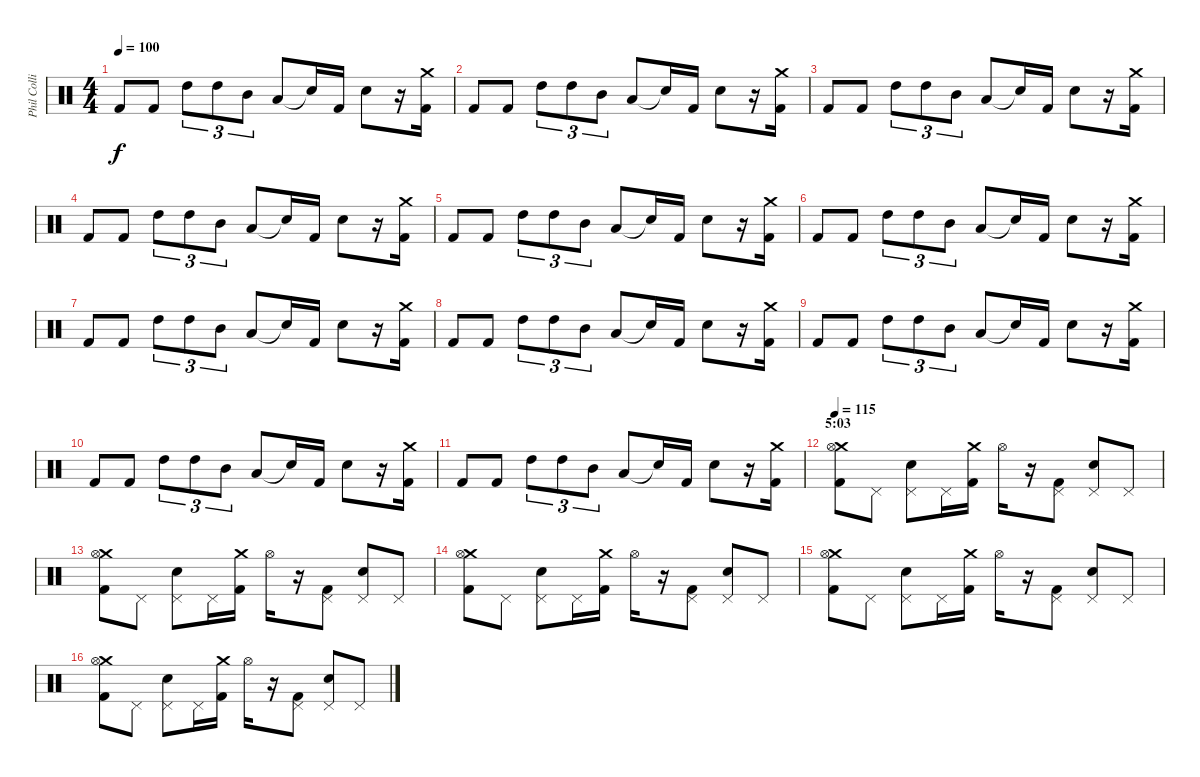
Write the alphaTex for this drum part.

\track ("Phil Collins (drums)" "Phil Colli") {instrument percussion}
\staff {score}
\articulation defaults
\ts (4 4)
\tempo 100
\clef neutral
\ks c "Kick (hit) 2".8{dy f} "Kick (hit) 2".8 "High Tom (hit)".8{tu (3 2)} "High Tom (hit)".8{tu (3 2)} "Mid Tom (hit)".8{tu (3 2)} "Low Tom (hit)".8 "Snare (hit)"{t}.16 "Kick (hit) 2".16 "Electric Snare (hit)".8
r.16 ("Crash medium (hit)" "Kick (hit) 2").16 |
"Kick (hit) 2".8 "Kick (hit) 2".8 "High Tom (hit)".8{tu (3 2)} "High Tom (hit)".8{tu (3 2)} "Mid Tom (hit)".8{tu (3 2)} "Low Tom (hit)".8 "Snare (hit)"{t}.16 "Kick (hit) 2".16 "Electric Snare (hit)".8 r.16 ("Crash medium (hit)" "Kick (hit) 2").16 |
"Kick (hit) 2".8 "Kick (hit) 2".8 "High Tom (hit)".8{tu (3 2)} "High Tom (hit)".8{tu (3 2)} "Mid Tom (hit)".8{tu (3 2)} "Low Tom (hit)".8 "Snare (hit)"{t}.16 "Kick (hit) 2".16 "Electric Snare (hit)".8 r.16 ("Crash medium (hit)" "Kick (hit) 2").16 |
"Kick (hit) 2".8 "Kick (hit) 2".8 "High Tom (hit)".8{tu (3 2)} "High Tom (hit)".8{tu (3 2)} "Mid Tom (hit)".8{tu (3 2)} "Low Tom (hit)".8 "Snare (hit)"{t}.16 "Kick (hit) 2".16 "Electric Snare (hit)".8 r.16 ("Crash medium (hit)" "Kick (hit) 2").16 |
"Kick (hit) 2".8 "Kick (hit) 2".8 "High Tom (hit)".8{tu (3 2)} "High Tom (hit)".8{tu (3 2)} "Mid Tom (hit)".8{tu (3 2)} "Low Tom (hit)".8 "Snare (hit)"{t}.16 "Kick (hit) 2".16 "Electric Snare (hit)".8 r.16 ("Crash medium (hit)" "Kick (hit) 2").16 |
"Kick (hit) 2".8 "Kick (hit) 2".8 "High Tom (hit)".8{tu (3 2)} "High Tom (hit)".8{tu (3 2)} "Mid Tom (hit)".8{tu (3 2)} "Low Tom (hit)".8 "Snare (hit)"{t}.16 "Kick (hit) 2".16 "Electric Snare (hit)".8 r.16 ("Crash medium (hit)" "Kick (hit) 2").16 |
"Kick (hit) 2".8 "Kick (hit) 2".8 "High Tom (hit)".8{tu (3 2)} "High Tom (hit)".8{tu (3 2)} "Mid Tom (hit)".8{tu (3 2)} "Low Tom (hit)".8 "Snare (hit)"{t}.16 "Kick (hit) 2".16 "Electric Snare (hit)".8 r.16 ("Crash medium (hit)" "Kick (hit) 2").16 |
"Kick (hit) 2".8 "Kick (hit) 2".8 "High Tom (hit)".8{tu (3 2)} "High Tom (hit)".8{tu (3 2)} "Mid Tom (hit)".8{tu (3 2)} "Low Tom (hit)".8 "Snare (hit)"{t}.16 "Kick (hit) 2".16 "Electric Snare (hit)".8 r.16 ("Crash medium (hit)" "Kick (hit) 2").16 |
"Kick (hit) 2".8 "Kick (hit) 2".8 "High Tom (hit)".8{tu (3 2)} "High Tom (hit)".8{tu (3 2)} "Mid Tom (hit)".8{tu (3 2)} "Low Tom (hit)".8 "Snare (hit)"{t}.16 "Kick (hit) 2".16 "Electric Snare (hit)".8 r.16 ("Crash medium (hit)" "Kick (hit) 2").16 |
"Kick (hit) 2".8 "Kick (hit) 2".8 "High Tom (hit)".8{tu (3 2)} "High Tom (hit)".8{tu (3 2)} "Mid Tom (hit)".8{tu (3 2)} "Low Tom (hit)".8 "Snare (hit)"{t}.16 "Kick (hit) 2".16 "Electric Snare (hit)".8 r.16 ("Crash medium (hit)" "Kick (hit) 2").16 |
"Kick (hit) 2".8 "Kick (hit) 2".8 "High Tom (hit)".8{tu (3 2)} "High Tom (hit)".8{tu (3 2)} "Mid Tom (hit)".8{tu (3 2)} "Low Tom (hit)".8 "Snare (hit)"{t}.16 "Kick (hit) 2".16 "Electric Snare (hit)".8 r.16 ("Crash medium (hit)" "Kick (hit) 2").16 |
\section ("" "5:03")
\tempo 115
("Crash medium (hit)" "Hi-Hat (open)" "Kick (hit) 2").8 "Pedal Hi-Hat (hit)".8 ("Pedal Hi-Hat (hit)" "Electric Snare (hit)").8 "Pedal Hi-Hat (hit)".16 ("Crash medium (hit)" "Kick (hit) 2").16 "Hi-Hat (open)".16 r.16 ("Pedal Hi-Hat (hit)" "Kick (hit) 2").8 ("Pedal Hi-Hat (hit)" "Electric Snare (hit)").8 "Pedal Hi-Hat (hit)".8 |
("Crash medium (hit)" "Hi-Hat (open)" "Kick (hit) 2").8 "Pedal Hi-Hat (hit)".8 ("Pedal Hi-Hat (hit)" "Electric Snare (hit)").8 "Pedal Hi-Hat (hit)".16 ("Crash medium (hit)" "Kick (hit) 2").16 "Hi-Hat (open)".16 r.16 ("Pedal Hi-Hat (hit)" "Kick (hit) 2").8 ("Pedal Hi-Hat (hit)" "Electric Snare (hit)").8 "Pedal Hi-Hat (hit)".8 |
("Crash medium (hit)" "Hi-Hat (open)" "Kick (hit) 2").8 "Pedal Hi-Hat (hit)".8 ("Pedal Hi-Hat (hit)" "Electric Snare (hit)").8 "Pedal Hi-Hat (hit)".16 ("Crash medium (hit)" "Kick (hit) 2").16 "Hi-Hat (open)".16 r.16 ("Pedal Hi-Hat (hit)" "Kick (hit) 2").8 ("Pedal Hi-Hat (hit)" "Electric Snare (hit)").8 "Pedal Hi-Hat (hit)".8 |
("Crash medium (hit)" "Hi-Hat (open)" "Kick (hit) 2").8 "Pedal Hi-Hat (hit)".8 ("Pedal Hi-Hat (hit)" "Electric Snare (hit)").8 "Pedal Hi-Hat (hit)".16 ("Crash medium (hit)" "Kick (hit) 2").16 "Hi-Hat (open)".16 r.16 ("Pedal Hi-Hat (hit)" "Kick (hit) 2").8 ("Pedal Hi-Hat (hit)" "Electric Snare (hit)").8 "Pedal Hi-Hat (hit)".8 |
("Crash medium (hit)" "Hi-Hat (open)" "Kick (hit) 2").8 "Pedal Hi-Hat (hit)".8 ("Pedal Hi-Hat (hit)" "Electric Snare (hit)").8 "Pedal Hi-Hat (hit)".16 ("Crash medium (hit)" "Kick (hit) 2").16 "Hi-Hat (open)".16 r.16 ("Pedal Hi-Hat (hit)" "Kick (hit) 2").8 ("Pedal Hi-Hat (hit)" "Electric Snare (hit)").8 "Pedal Hi-Hat (hit)".8
